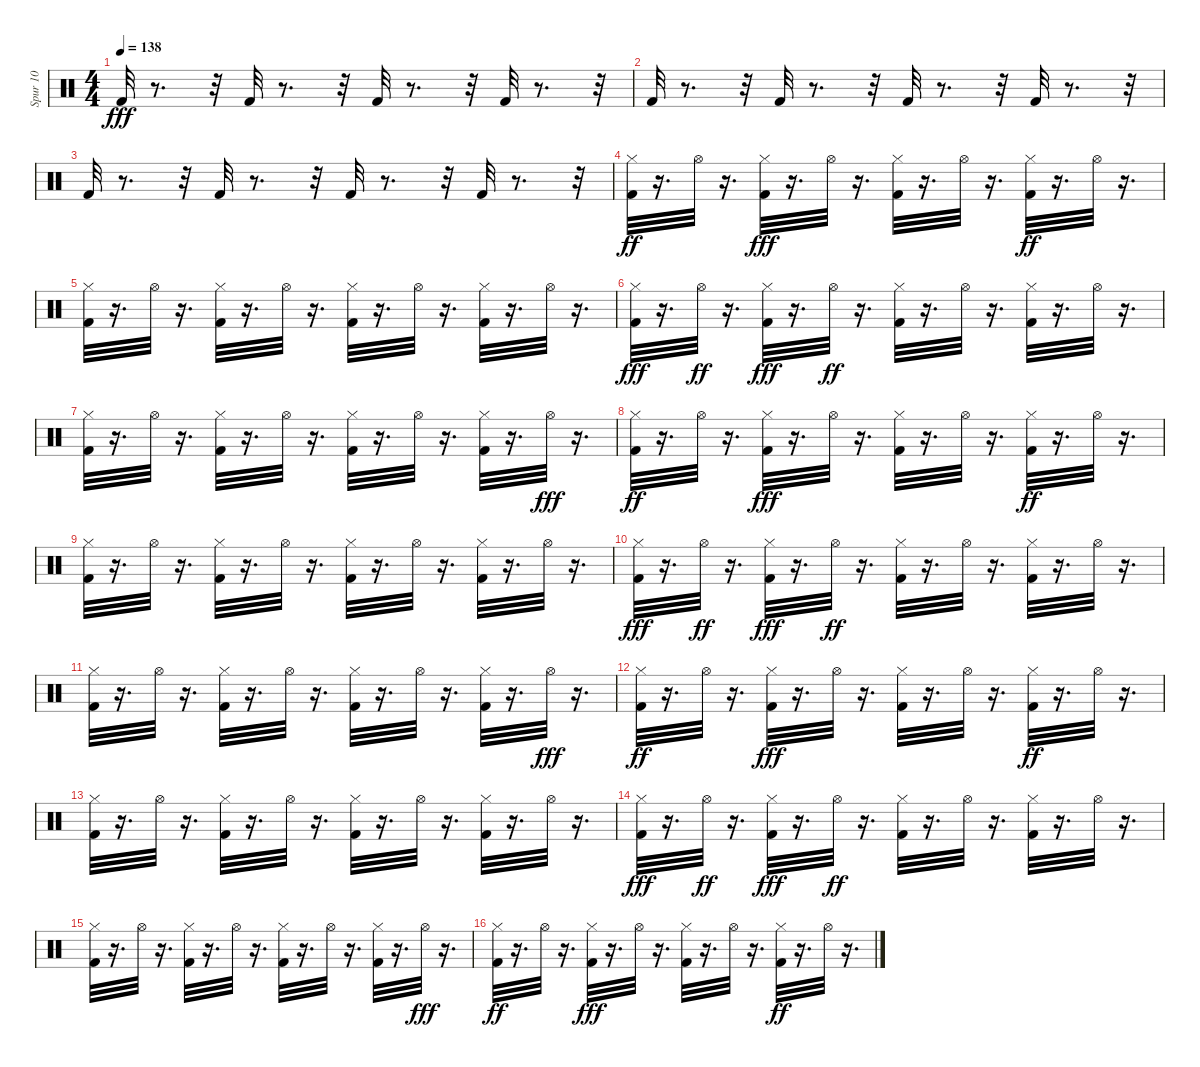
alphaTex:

\track ("Spur 10" "Spur 10") {instrument percussion}
\staff {score}
\articulation defaults
\ts (4 4)
\tempo 138
\clef neutral
\ks c "Kick (hit) 2".32{dy fff}
r.8{d} r.32 "Kick (hit) 2".32 r.8{d} r.32 "Kick (hit) 2".32 r.8{d} r.32 "Kick (hit) 2".32 r.8{d} r.32 |
"Kick (hit) 2".32 r.8{d} r.32 "Kick (hit) 2".32 r.8{d} r.32 "Kick (hit) 2".32 r.8{d} r.32 "Kick (hit) 2".32 r.8{d} r.32 |
"Kick (hit) 2".32 r.8{d} r.32 "Kick (hit) 2".32 r.8{d} r.32 "Kick (hit) 2".32 r.8{d} r.32 "Kick (hit) 2".32 r.8{d} r.32 |
("Kick (hit) 2" "Hi-Hat (closed)").32{dy ff} r.16{d} "Hi-Hat (open)".32 r.16{d} ("Kick (hit) 2" "Hi-Hat (closed)").32{dy fff} r.16{d} "Hi-Hat (open)".32 r.16{d} ("Kick (hit) 2" "Hi-Hat (closed)").32 r.16{d} "Hi-Hat (open)".32 r.16{d} ("Kick (hit) 2" "Hi-Hat (closed)").32{dy ff} r.16{d} "Hi-Hat (open)".32 r.16{d} |
("Kick (hit) 2" "Hi-Hat (closed)").32 r.16{d} "Hi-Hat (open)".32 r.16{d} ("Kick (hit) 2" "Hi-Hat (closed)").32 r.16{d} "Hi-Hat (open)".32 r.16{d} ("Kick (hit) 2" "Hi-Hat (closed)").32 r.16{d} "Hi-Hat (open)".32 r.16{d} ("Kick (hit) 2" "Hi-Hat (closed)").32 r.16{d} "Hi-Hat (open)".32 r.16{d} |
("Kick (hit) 2" "Hi-Hat (closed)").32{dy fff} r.16{d} "Hi-Hat (open)".32{dy ff} r.16{d} ("Kick (hit) 2" "Hi-Hat (closed)").32{dy fff} r.16{d} "Hi-Hat (open)".32{dy ff} r.16{d} ("Kick (hit) 2" "Hi-Hat (closed)").32 r.16{d} "Hi-Hat (open)".32 r.16{d} ("Kick (hit) 2" "Hi-Hat (closed)").32 r.16{d} "Hi-Hat (open)".32 r.16{d} |
("Kick (hit) 2" "Hi-Hat (closed)").32 r.16{d} "Hi-Hat (open)".32 r.16{d} ("Kick (hit) 2" "Hi-Hat (closed)").32 r.16{d} "Hi-Hat (open)".32 r.16{d} ("Kick (hit) 2" "Hi-Hat (closed)").32 r.16{d} "Hi-Hat (open)".32 r.16{d} ("Kick (hit) 2" "Hi-Hat (closed)").32 r.16{d} "Hi-Hat (open)".32{dy fff} r.16{d} |
("Kick (hit) 2" "Hi-Hat (closed)").32{dy ff} r.16{d} "Hi-Hat (open)".32 r.16{d} ("Kick (hit) 2" "Hi-Hat (closed)").32{dy fff} r.16{d} "Hi-Hat (open)".32 r.16{d} ("Kick (hit) 2" "Hi-Hat (closed)").32 r.16{d} "Hi-Hat (open)".32 r.16{d} ("Kick (hit) 2" "Hi-Hat (closed)").32{dy ff} r.16{d} "Hi-Hat (open)".32 r.16{d} |
("Kick (hit) 2" "Hi-Hat (closed)").32 r.16{d} "Hi-Hat (open)".32 r.16{d} ("Kick (hit) 2" "Hi-Hat (closed)").32 r.16{d} "Hi-Hat (open)".32 r.16{d} ("Kick (hit) 2" "Hi-Hat (closed)").32 r.16{d} "Hi-Hat (open)".32 r.16{d} ("Kick (hit) 2" "Hi-Hat (closed)").32 r.16{d} "Hi-Hat (open)".32 r.16{d} |
("Kick (hit) 2" "Hi-Hat (closed)").32{dy fff} r.16{d} "Hi-Hat (open)".32{dy ff} r.16{d} ("Kick (hit) 2" "Hi-Hat (closed)").32{dy fff} r.16{d} "Hi-Hat (open)".32{dy ff} r.16{d} ("Kick (hit) 2" "Hi-Hat (closed)").32 r.16{d} "Hi-Hat (open)".32 r.16{d} ("Kick (hit) 2" "Hi-Hat (closed)").32 r.16{d} "Hi-Hat (open)".32 r.16{d} |
("Kick (hit) 2" "Hi-Hat (closed)").32 r.16{d} "Hi-Hat (open)".32 r.16{d} ("Kick (hit) 2" "Hi-Hat (closed)").32 r.16{d} "Hi-Hat (open)".32 r.16{d} ("Kick (hit) 2" "Hi-Hat (closed)").32 r.16{d} "Hi-Hat (open)".32 r.16{d} ("Kick (hit) 2" "Hi-Hat (closed)").32 r.16{d} "Hi-Hat (open)".32{dy fff} r.16{d} |
("Kick (hit) 2" "Hi-Hat (closed)").32{dy ff} r.16{d} "Hi-Hat (open)".32 r.16{d} ("Kick (hit) 2" "Hi-Hat (closed)").32{dy fff} r.16{d} "Hi-Hat (open)".32 r.16{d} ("Kick (hit) 2" "Hi-Hat (closed)").32 r.16{d} "Hi-Hat (open)".32 r.16{d} ("Kick (hit) 2" "Hi-Hat (closed)").32{dy ff} r.16{d} "Hi-Hat (open)".32 r.16{d} |
("Kick (hit) 2" "Hi-Hat (closed)").32 r.16{d} "Hi-Hat (open)".32 r.16{d} ("Kick (hit) 2" "Hi-Hat (closed)").32 r.16{d} "Hi-Hat (open)".32 r.16{d} ("Kick (hit) 2" "Hi-Hat (closed)").32 r.16{d} "Hi-Hat (open)".32 r.16{d} ("Kick (hit) 2" "Hi-Hat (closed)").32 r.16{d} "Hi-Hat (open)".32 r.16{d} |
("Kick (hit) 2" "Hi-Hat (closed)").32{dy fff} r.16{d} "Hi-Hat (open)".32{dy ff} r.16{d} ("Kick (hit) 2" "Hi-Hat (closed)").32{dy fff} r.16{d} "Hi-Hat (open)".32{dy ff} r.16{d} ("Kick (hit) 2" "Hi-Hat (closed)").32 r.16{d} "Hi-Hat (open)".32 r.16{d} ("Kick (hit) 2" "Hi-Hat (closed)").32 r.16{d} "Hi-Hat (open)".32 r.16{d} |
("Kick (hit) 2" "Hi-Hat (closed)").32 r.16{d} "Hi-Hat (open)".32 r.16{d} ("Kick (hit) 2" "Hi-Hat (closed)").32 r.16{d} "Hi-Hat (open)".32 r.16{d} ("Kick (hit) 2" "Hi-Hat (closed)").32 r.16{d} "Hi-Hat (open)".32 r.16{d} ("Kick (hit) 2" "Hi-Hat (closed)").32 r.16{d} "Hi-Hat (open)".32{dy fff} r.16{d} |
("Kick (hit) 2" "Hi-Hat (closed)").32{dy ff} r.16{d} "Hi-Hat (open)".32 r.16{d} ("Kick (hit) 2" "Hi-Hat (closed)").32{dy fff} r.16{d} "Hi-Hat (open)".32 r.16{d} ("Kick (hit) 2" "Hi-Hat (closed)").32 r.16{d} "Hi-Hat (open)".32 r.16{d} ("Kick (hit) 2" "Hi-Hat (closed)").32{dy ff} r.16{d} "Hi-Hat (open)".32 r.16{d}
